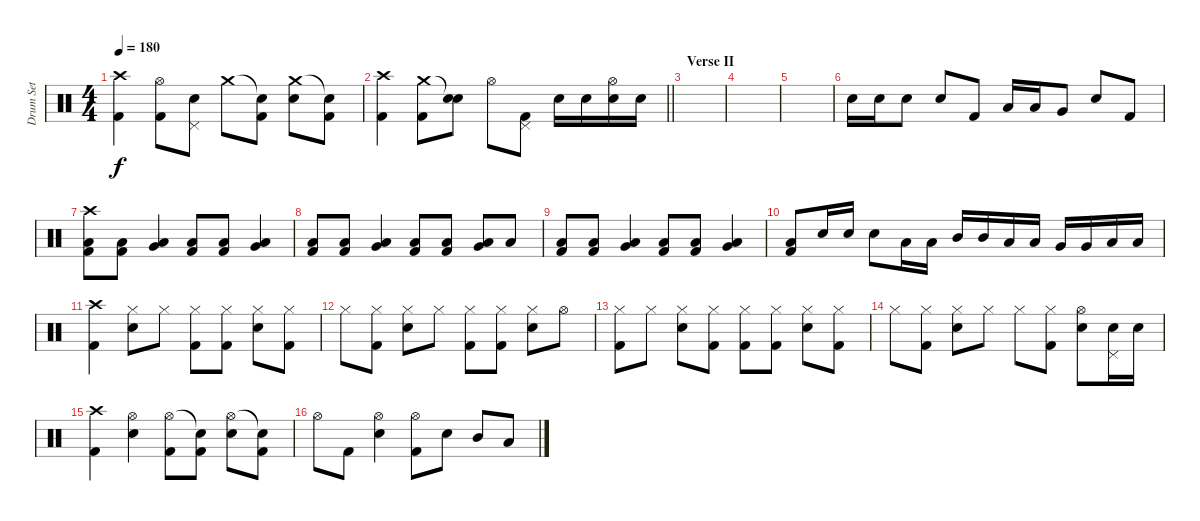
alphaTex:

\track ("Drum Set" "Drum Set") {instrument percussion}
\staff {score}
\articulation defaults
\ts (4 4)
\tempo 180
\clef neutral
\ks c
("Crash high (hit)" "Kick (hit) 2").4{dy f} ("Hi-Hat (open)" "Kick (hit) 2").8 ("Pedal Hi-Hat (hit)" "Electric Snare (hit)").8 "Crash medium (hit)".8 ("Snare (hit)"{t} "Kick (hit) 2").8 ("Crash medium (hit)" "Electric Snare (hit)").8 ("Snare (hit)"{t} "Kick (hit) 2").8 |
\barLineRight lightlight
("Crash high (hit)" "Kick (hit) 2").4 ("Crash medium (hit)" "Kick (hit) 2").8 ("Electric Snare (hit)"{t} "Electric Snare (hit)").8 "Hi-Hat (open)".8 ("Pedal Hi-Hat (hit)" "Kick (hit) 2").8 "Electric Snare (hit)".16 "Electric Snare (hit)".16 ("Electric Snare (hit)" "Hi-Hat (open)").16 "Electric Snare (hit)".16 |
\section ("" "Verse II")
|
|
|
"Electric Snare (hit)".16 "Electric Snare (hit)".16 "Electric Snare (hit)".8 "Electric Snare (hit)".8 "Kick (hit) 2".8 "Low Tom (hit)".16 "Low Tom (hit)".16 "Very Low Tom (hit)".8 "Electric Snare (hit)".8 "Kick (hit) 2".8 |
("Crash high (hit)" "Low Tom (hit)" "Kick (hit) 2").8 ("Low Tom (hit)" "Kick (hit) 2").8 ("Very Low Tom (hit)" "Low Floor Tom (hit)").4 ("Low Tom (hit)" "Kick (hit) 2").8 ("Low Tom (hit)" "Kick (hit) 2").8 ("Very Low Tom (hit)" "Low Floor Tom (hit)").4 |
("Low Tom (hit)" "Kick (hit) 2").8 ("Low Tom (hit)" "Kick (hit) 2").8 ("Very Low Tom (hit)" "Low Floor Tom (hit)").4 ("Low Tom (hit)" "Kick (hit) 2").8 ("Low Tom (hit)" "Kick (hit) 2").8 ("Very Low Tom (hit)" "Low Floor Tom (hit)").8 "Low Floor Tom (hit)".8 |
("Low Tom (hit)" "Kick (hit) 2").8 ("Low Tom (hit)" "Kick (hit) 2").8 ("Very Low Tom (hit)" "Low Floor Tom (hit)").4 ("Low Tom (hit)" "Kick (hit) 2").8 ("Low Tom (hit)" "Kick (hit) 2").8 ("Very Low Tom (hit)" "Low Floor Tom (hit)").4 |
("Low Tom (hit)" "Kick (hit) 2").8 "Electric Snare (hit)".16 "Electric Snare (hit)".16 "Electric Snare (hit)".8 "Low Tom (hit)".16 "Low Tom (hit)".16 "Mid Tom (hit)".16 "Mid Tom (hit)".16 "Low Tom (hit)".16 "Low Tom (hit)".16 "Very Low Tom (hit)".16 "Very Low Tom (hit)".16 "Low Floor Tom (hit)".16 "Low Floor Tom (hit)".16 |
("Crash high (hit)" "Kick (hit) 2").4 ("Hi-Hat (closed)" "Electric Snare (hit)").8 "Hi-Hat (closed)".8 ("Hi-Hat (closed)" "Kick (hit) 2").8 ("Hi-Hat (closed)" "Kick (hit) 2").8 ("Hi-Hat (closed)" "Electric Snare (hit)").8 ("Hi-Hat (closed)" "Kick (hit) 2").8 |
"Hi-Hat (closed)".8 ("Hi-Hat (closed)" "Kick (hit) 2").8 ("Hi-Hat (closed)" "Electric Snare (hit)").8 "Hi-Hat (closed)".8 ("Hi-Hat (closed)" "Kick (hit) 2").8 ("Hi-Hat (closed)" "Kick (hit) 2").8 ("Hi-Hat (closed)" "Electric Snare (hit)").8 "Hi-Hat (open)".8 |
("Hi-Hat (closed)" "Kick (hit) 2").8 "Hi-Hat (closed)".8 ("Hi-Hat (closed)" "Electric Snare (hit)").8 ("Hi-Hat (closed)" "Kick (hit) 2").8 ("Hi-Hat (closed)" "Kick (hit) 2").8 ("Hi-Hat (closed)" "Kick (hit) 2").8 ("Hi-Hat (closed)" "Electric Snare (hit)").8 ("Hi-Hat (closed)" "Kick (hit) 2").8 |
"Hi-Hat (closed)".8 ("Hi-Hat (closed)" "Kick (hit) 2").8 ("Hi-Hat (closed)" "Electric Snare (hit)").8 "Hi-Hat (closed)".8 "Hi-Hat (closed)".8 ("Hi-Hat (closed)" "Kick (hit) 2").8 ("Hi-Hat (open)" "Electric Snare (hit)").8 ("Electric Snare (hit)" "Pedal Hi-Hat (hit)").16 "Electric Snare (hit)".16 |
("Crash high (hit)" "Kick (hit) 2").4 ("Hi-Hat (open)" "Electric Snare (hit)").4 ("Hi-Hat (open)" "Kick (hit) 2").8 ("Snare (hit)"{t} "Kick (hit) 2").8 ("Hi-Hat (open)" "Electric Snare (hit)").8 ("Snare (hit)"{t} "Kick (hit) 2").8 |
"Hi-Hat (open)".8 "Kick (hit) 2".8 ("Hi-Hat (open)" "Electric Snare (hit)").4 ("Hi-Hat (open)" "Kick (hit) 2").8 "Electric Snare (hit)".8 "Mid Tom (hit)".8 "Low Tom (hit)".8
